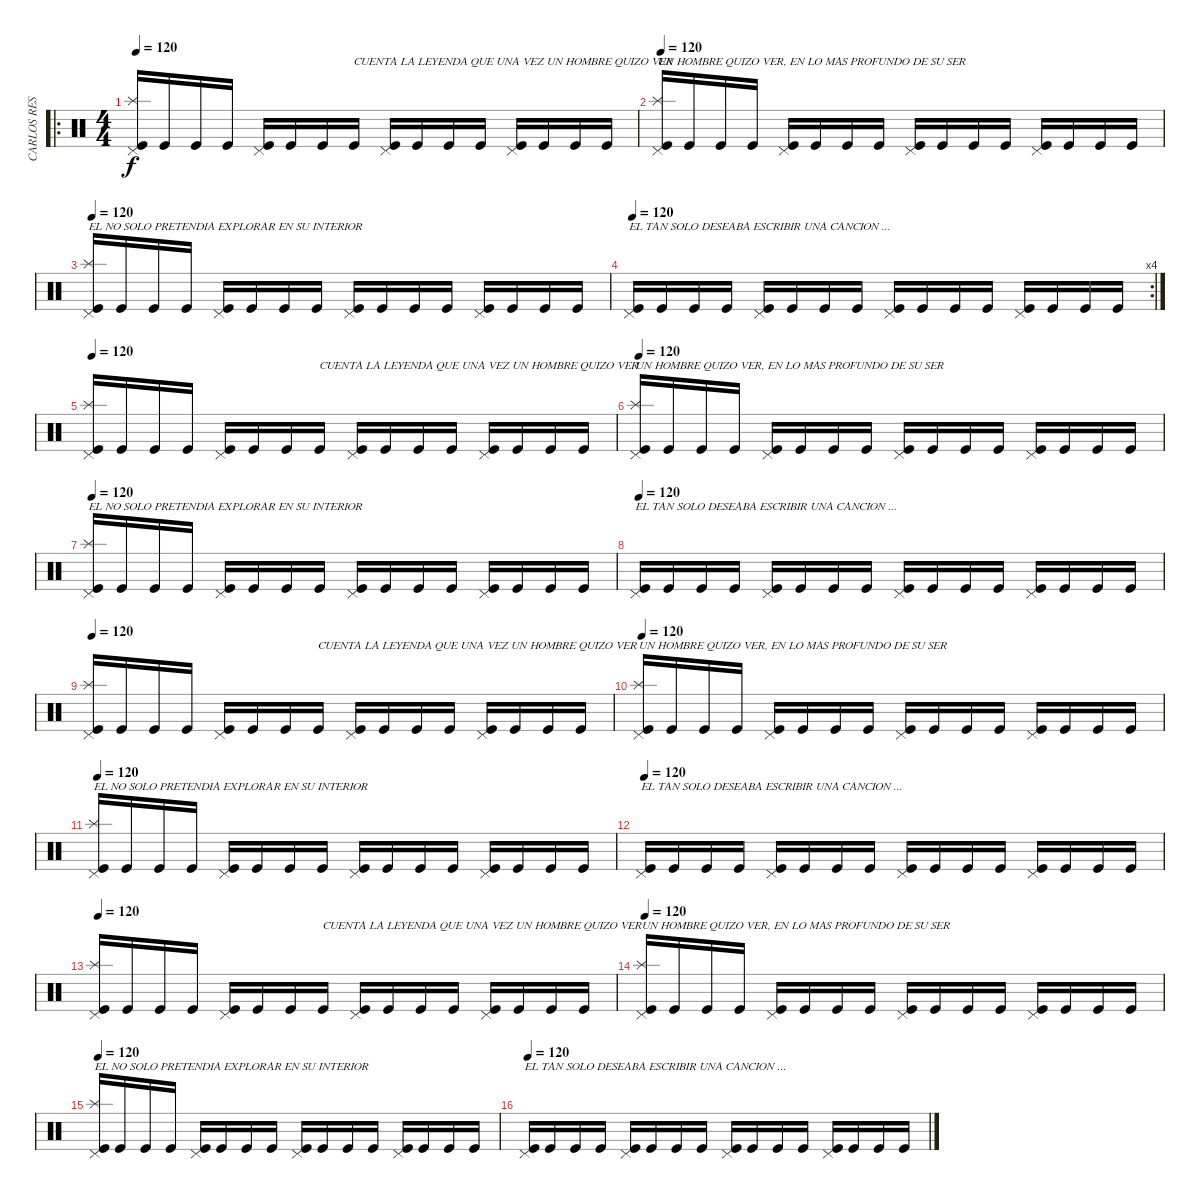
\track ("CARLOS RESTREPO DARK  BATERIA" "CARLOS RES") {instrument percussion}
\staff {score}
\articulation defaults
\ro
\ts (4 4)
\tempo 120
\clef neutral
\ks c
("Kick (hit)" "Splash (hit)" "Pedal Hi-Hat (hit)").16{dy f} "Kick (hit)".16 "Kick (hit)".16 "Kick (hit)".16 ("Kick (hit)" "Pedal Hi-Hat (hit)").16 "Kick (hit)".16 "Kick (hit)".16 "Kick (hit)".16{txt "CUENTA LA LEYENDA QUE UNA VEZ UN HOMBRE QUIZO VER"} ("Kick (hit)" "Pedal Hi-Hat (hit)").16 "Kick (hit)".16 "Kick (hit)".16 "Kick (hit)".16 ("Kick (hit)" "Pedal Hi-Hat (hit)").16 "Kick (hit)".16 "Kick (hit)".16 "Kick (hit)".16 |
\tempo 120
("Kick (hit)" "Splash (hit)" "Pedal Hi-Hat (hit)").16{txt "UN HOMBRE QUIZO VER, EN LO MAS PROFUNDO DE SU SER"} "Kick (hit)".16 "Kick (hit)".16 "Kick (hit)".16 ("Kick (hit)" "Pedal Hi-Hat (hit)").16 "Kick (hit)".16 "Kick (hit)".16 "Kick (hit)".16 ("Kick (hit)" "Pedal Hi-Hat (hit)").16 "Kick (hit)".16 "Kick (hit)".16 "Kick (hit)".16 ("Kick (hit)" "Pedal Hi-Hat (hit)").16 "Kick (hit)".16 "Kick (hit)".16 "Kick (hit)".16 |
\tempo 120
("Kick (hit)" "Splash (hit)" "Pedal Hi-Hat (hit)").16{txt "EL NO SOLO PRETENDIA EXPLORAR EN SU INTERIOR"} "Kick (hit)".16 "Kick (hit)".16 "Kick (hit)".16 ("Kick (hit)" "Pedal Hi-Hat (hit)").16 "Kick (hit)".16 "Kick (hit)".16 "Kick (hit)".16 ("Kick (hit)" "Pedal Hi-Hat (hit)").16 "Kick (hit)".16 "Kick (hit)".16 "Kick (hit)".16 ("Kick (hit)" "Pedal Hi-Hat (hit)").16 "Kick (hit)".16 "Kick (hit)".16 "Kick (hit)".16 |
\rc 4
\tempo 120
("Kick (hit)" "Pedal Hi-Hat (hit)").16{txt "EL TAN SOLO DESEABA ESCRIBIR UNA CANCION ..."} "Kick (hit)".16 "Kick (hit)".16 "Kick (hit)".16 ("Kick (hit)" "Pedal Hi-Hat (hit)").16 "Kick (hit)".16 "Kick (hit)".16 "Kick (hit)".16 ("Kick (hit)" "Pedal Hi-Hat (hit)").16 "Kick (hit)".16 "Kick (hit)".16 "Kick (hit)".16 ("Kick (hit)" "Pedal Hi-Hat (hit)").16 "Kick (hit)".16 "Kick (hit)".16 "Kick (hit)".16 |
\tempo 120
("Kick (hit)" "Splash (hit)" "Pedal Hi-Hat (hit)").16 "Kick (hit)".16 "Kick (hit)".16 "Kick (hit)".16 ("Kick (hit)" "Pedal Hi-Hat (hit)").16 "Kick (hit)".16 "Kick (hit)".16 "Kick (hit)".16{txt "CUENTA LA LEYENDA QUE UNA VEZ UN HOMBRE QUIZO VER"} ("Kick (hit)" "Pedal Hi-Hat (hit)").16 "Kick (hit)".16 "Kick (hit)".16 "Kick (hit)".16 ("Kick (hit)" "Pedal Hi-Hat (hit)").16 "Kick (hit)".16 "Kick (hit)".16 "Kick (hit)".16 |
\tempo 120
("Kick (hit)" "Splash (hit)" "Pedal Hi-Hat (hit)").16{txt "UN HOMBRE QUIZO VER, EN LO MAS PROFUNDO DE SU SER"} "Kick (hit)".16 "Kick (hit)".16 "Kick (hit)".16 ("Kick (hit)" "Pedal Hi-Hat (hit)").16 "Kick (hit)".16 "Kick (hit)".16 "Kick (hit)".16 ("Kick (hit)" "Pedal Hi-Hat (hit)").16 "Kick (hit)".16 "Kick (hit)".16 "Kick (hit)".16 ("Kick (hit)" "Pedal Hi-Hat (hit)").16 "Kick (hit)".16 "Kick (hit)".16 "Kick (hit)".16 |
\tempo 120
("Kick (hit)" "Splash (hit)" "Pedal Hi-Hat (hit)").16{txt "EL NO SOLO PRETENDIA EXPLORAR EN SU INTERIOR"} "Kick (hit)".16 "Kick (hit)".16 "Kick (hit)".16 ("Kick (hit)" "Pedal Hi-Hat (hit)").16 "Kick (hit)".16 "Kick (hit)".16 "Kick (hit)".16 ("Kick (hit)" "Pedal Hi-Hat (hit)").16 "Kick (hit)".16 "Kick (hit)".16 "Kick (hit)".16 ("Kick (hit)" "Pedal Hi-Hat (hit)").16 "Kick (hit)".16 "Kick (hit)".16 "Kick (hit)".16 |
\tempo 120
("Kick (hit)" "Pedal Hi-Hat (hit)").16{txt "EL TAN SOLO DESEABA ESCRIBIR UNA CANCION ..."} "Kick (hit)".16 "Kick (hit)".16 "Kick (hit)".16 ("Kick (hit)" "Pedal Hi-Hat (hit)").16 "Kick (hit)".16 "Kick (hit)".16 "Kick (hit)".16 ("Kick (hit)" "Pedal Hi-Hat (hit)").16 "Kick (hit)".16 "Kick (hit)".16 "Kick (hit)".16 ("Kick (hit)" "Pedal Hi-Hat (hit)").16 "Kick (hit)".16 "Kick (hit)".16 "Kick (hit)".16 |
\tempo 120
("Kick (hit)" "Splash (hit)" "Pedal Hi-Hat (hit)").16 "Kick (hit)".16 "Kick (hit)".16 "Kick (hit)".16 ("Kick (hit)" "Pedal Hi-Hat (hit)").16 "Kick (hit)".16 "Kick (hit)".16 "Kick (hit)".16{txt "CUENTA LA LEYENDA QUE UNA VEZ UN HOMBRE QUIZO VER"} ("Kick (hit)" "Pedal Hi-Hat (hit)").16 "Kick (hit)".16 "Kick (hit)".16 "Kick (hit)".16 ("Kick (hit)" "Pedal Hi-Hat (hit)").16 "Kick (hit)".16 "Kick (hit)".16 "Kick (hit)".16 |
\tempo 120
("Kick (hit)" "Splash (hit)" "Pedal Hi-Hat (hit)").16{txt "UN HOMBRE QUIZO VER, EN LO MAS PROFUNDO DE SU SER"} "Kick (hit)".16 "Kick (hit)".16 "Kick (hit)".16 ("Kick (hit)" "Pedal Hi-Hat (hit)").16 "Kick (hit)".16 "Kick (hit)".16 "Kick (hit)".16 ("Kick (hit)" "Pedal Hi-Hat (hit)").16 "Kick (hit)".16 "Kick (hit)".16 "Kick (hit)".16 ("Kick (hit)" "Pedal Hi-Hat (hit)").16 "Kick (hit)".16 "Kick (hit)".16 "Kick (hit)".16 |
\tempo 120
("Kick (hit)" "Splash (hit)" "Pedal Hi-Hat (hit)").16{txt "EL NO SOLO PRETENDIA EXPLORAR EN SU INTERIOR"} "Kick (hit)".16 "Kick (hit)".16 "Kick (hit)".16 ("Kick (hit)" "Pedal Hi-Hat (hit)").16 "Kick (hit)".16 "Kick (hit)".16 "Kick (hit)".16 ("Kick (hit)" "Pedal Hi-Hat (hit)").16 "Kick (hit)".16 "Kick (hit)".16 "Kick (hit)".16 ("Kick (hit)" "Pedal Hi-Hat (hit)").16 "Kick (hit)".16 "Kick (hit)".16 "Kick (hit)".16 |
\tempo 120
("Kick (hit)" "Pedal Hi-Hat (hit)").16{txt "EL TAN SOLO DESEABA ESCRIBIR UNA CANCION ..."} "Kick (hit)".16 "Kick (hit)".16 "Kick (hit)".16 ("Kick (hit)" "Pedal Hi-Hat (hit)").16 "Kick (hit)".16 "Kick (hit)".16 "Kick (hit)".16 ("Kick (hit)" "Pedal Hi-Hat (hit)").16 "Kick (hit)".16 "Kick (hit)".16 "Kick (hit)".16 ("Kick (hit)" "Pedal Hi-Hat (hit)").16 "Kick (hit)".16 "Kick (hit)".16 "Kick (hit)".16 |
\tempo 120
("Kick (hit)" "Splash (hit)" "Pedal Hi-Hat (hit)").16 "Kick (hit)".16 "Kick (hit)".16 "Kick (hit)".16 ("Kick (hit)" "Pedal Hi-Hat (hit)").16 "Kick (hit)".16 "Kick (hit)".16 "Kick (hit)".16{txt "CUENTA LA LEYENDA QUE UNA VEZ UN HOMBRE QUIZO VER"} ("Kick (hit)" "Pedal Hi-Hat (hit)").16 "Kick (hit)".16 "Kick (hit)".16 "Kick (hit)".16 ("Kick (hit)" "Pedal Hi-Hat (hit)").16 "Kick (hit)".16 "Kick (hit)".16 "Kick (hit)".16 |
\tempo 120
("Kick (hit)" "Splash (hit)" "Pedal Hi-Hat (hit)").16{txt "UN HOMBRE QUIZO VER, EN LO MAS PROFUNDO DE SU SER"} "Kick (hit)".16 "Kick (hit)".16 "Kick (hit)".16 ("Kick (hit)" "Pedal Hi-Hat (hit)").16 "Kick (hit)".16 "Kick (hit)".16 "Kick (hit)".16 ("Kick (hit)" "Pedal Hi-Hat (hit)").16 "Kick (hit)".16 "Kick (hit)".16 "Kick (hit)".16 ("Kick (hit)" "Pedal Hi-Hat (hit)").16 "Kick (hit)".16 "Kick (hit)".16 "Kick (hit)".16 |
\tempo 120
("Kick (hit)" "Splash (hit)" "Pedal Hi-Hat (hit)").16{txt "EL NO SOLO PRETENDIA EXPLORAR EN SU INTERIOR"} "Kick (hit)".16 "Kick (hit)".16 "Kick (hit)".16 ("Kick (hit)" "Pedal Hi-Hat (hit)").16 "Kick (hit)".16 "Kick (hit)".16 "Kick (hit)".16 ("Kick (hit)" "Pedal Hi-Hat (hit)").16 "Kick (hit)".16 "Kick (hit)".16 "Kick (hit)".16 ("Kick (hit)" "Pedal Hi-Hat (hit)").16 "Kick (hit)".16 "Kick (hit)".16 "Kick (hit)".16 |
\tempo 120
("Kick (hit)" "Pedal Hi-Hat (hit)").16{txt "EL TAN SOLO DESEABA ESCRIBIR UNA CANCION ..."} "Kick (hit)".16 "Kick (hit)".16 "Kick (hit)".16 ("Kick (hit)" "Pedal Hi-Hat (hit)").16 "Kick (hit)".16 "Kick (hit)".16 "Kick (hit)".16 ("Kick (hit)" "Pedal Hi-Hat (hit)").16 "Kick (hit)".16 "Kick (hit)".16 "Kick (hit)".16 ("Kick (hit)" "Pedal Hi-Hat (hit)").16 "Kick (hit)".16 "Kick (hit)".16 "Kick (hit)".16
